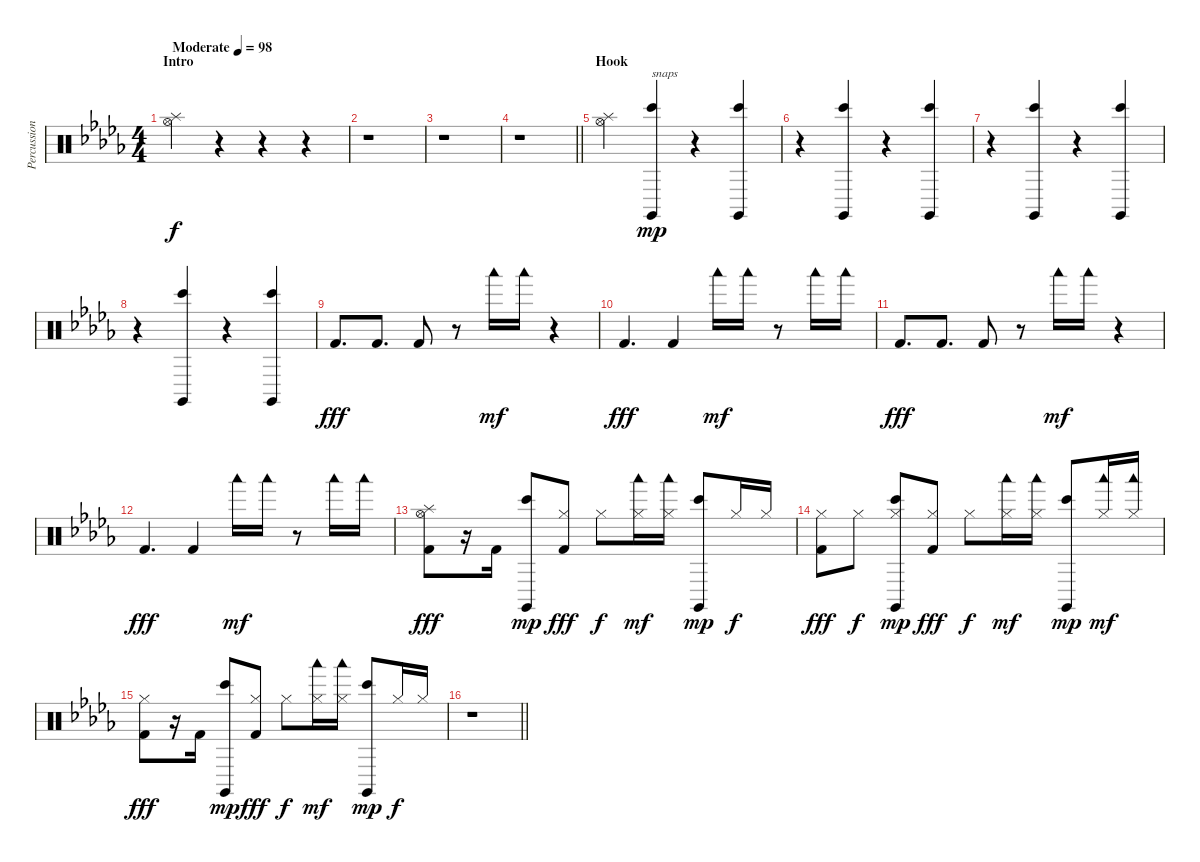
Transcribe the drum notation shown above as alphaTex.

\track ("Percussion" "Percussion") {instrument percussion}
\staff {score}
\articulation defaults
\ts (4 4)
\section ("" "Intro")
\tempo (98 "Moderate")
\clef neutral
\ks db
("Splash (hit)" "Hi-Hat (open)").4{dy f} r.4 r.4 r.4 |
r.1 |
r.1 |
\barLineRight lightlight
r.1 |
\section ("" "Hook")
("Splash (hit)" "Hi-Hat (open)").4 ("Claves (hit)" "Bongo High (hit)").4{txt "snaps" dy mp} r.4 ("Claves (hit)" "Bongo High (hit)").4 |
r.4 ("Claves (hit)" "Bongo High (hit)").4 r.4 ("Claves (hit)" "Bongo High (hit)").4 |
r.4 ("Claves (hit)" "Bongo High (hit)").4 r.4 ("Claves (hit)" "Bongo High (hit)").4 |
r.4 ("Claves (hit)" "Bongo High (hit)").4 r.4 ("Claves (hit)" "Bongo High (hit)").4 |
"Kick (hit) 2".8{d dy fff} "Kick (hit) 2".8{d} "Kick (hit) 2".8 r.8 "Woodblock low (hit)".16{dy mf balance 3} "Woodblock low (hit)".16{balance 13} r.4 |
"Kick (hit) 2".4{d dy fff balance 8} "Kick (hit) 2".4 "Woodblock low (hit)".16{dy mf balance 3} "Woodblock low (hit)".16{balance 13} r.8 "Woodblock low (hit)".16{balance 3} "Woodblock low (hit)".16{balance 13} |
"Kick (hit) 2".8{d dy fff balance 8} "Kick (hit) 2".8{d} "Kick (hit) 2".8 r.8 "Woodblock low (hit)".16{dy mf balance 3} "Woodblock low (hit)".16{balance 13} r.4 |
"Kick (hit) 2".4{d dy fff balance 8} "Kick (hit) 2".4 "Woodblock low (hit)".16{dy mf balance 3} "Woodblock low (hit)".16{balance 13} r.8 "Woodblock low (hit)".16{balance 3} "Woodblock low (hit)".16{balance 13} |
("Splash (hit)" "Hi-Hat (open)" "Kick (hit) 2").8{dy fff balance 8} r.16 "Kick (hit) 2".16 ("Claves (hit)" "Bongo High (hit)").8{dy mp} ("Hi-Hat (closed)" "Kick (hit) 2").8{dy fff} "Hi-Hat (closed)".8{dy f} ("Hi-Hat (closed)" "Woodblock low (hit)").16{dy mf} ("Hi-Hat (closed)" "Woodblock low (hit)").16 ("Claves (hit)" "Bongo High (hit)").8{dy mp} "Hi-Hat (closed)".16{dy f} "Hi-Hat (closed)".16 |
("Hi-Hat (closed)" "Kick (hit) 2").8{dy fff} "Hi-Hat (closed)".8{dy f} ("Hi-Hat (closed)" "Claves (hit)" "Bongo High (hit)").8{dy mp} ("Hi-Hat (closed)" "Kick (hit) 2").8{dy fff} "Hi-Hat (closed)".8{dy f} ("Hi-Hat (closed)" "Woodblock low (hit)").16{dy mf} ("Hi-Hat (closed)" "Woodblock low (hit)").16 ("Claves (hit)" "Bongo High (hit)").8{dy mp} ("Hi-Hat (closed)" "Woodblock low (hit)").16{dy mf} ("Hi-Hat (closed)" "Woodblock low (hit)").16 |
("Hi-Hat (closed)" "Kick (hit) 2").8{dy fff} r.16 "Kick (hit) 2".16 ("Claves (hit)" "Bongo High (hit)").8{dy mp} ("Hi-Hat (closed)" "Kick (hit) 2").8{dy fff} "Hi-Hat (closed)".8{dy f} ("Hi-Hat (closed)" "Woodblock low (hit)").16{dy mf} ("Hi-Hat (closed)" "Woodblock low (hit)").16 ("Claves (hit)" "Bongo High (hit)").8{dy mp} "Hi-Hat (closed)".16{dy f} "Hi-Hat (closed)".16 |
\barLineRight lightlight
r.1
